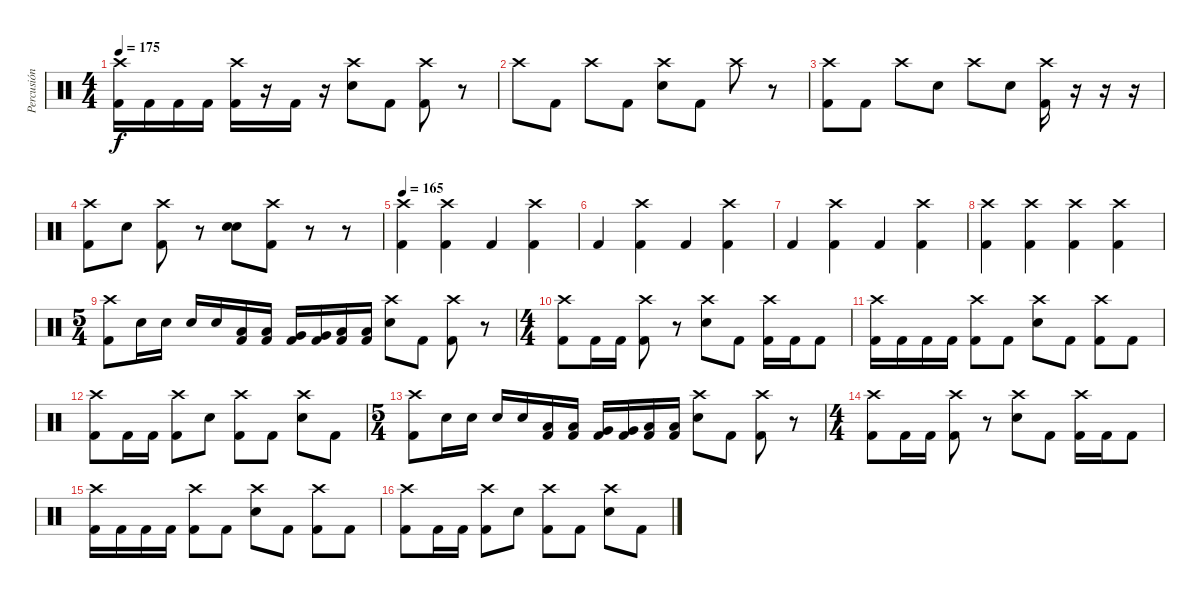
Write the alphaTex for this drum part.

\track ("Percusión" "Percusión") {instrument percussion}
\staff {score}
\articulation defaults
\ts (4 4)
\tempo 175
\clef neutral
\ks c
("Crash high (hit)" "Kick (hit) 2").16{dy f} "Kick (hit) 2".16 "Kick (hit) 2".16 "Kick (hit) 2".16 ("Crash high (hit)" "Kick (hit) 2").16 r.16 "Kick (hit) 2".16 r.16 ("Crash high (hit)" "Electric Snare (hit)").8 "Kick (hit) 2".8 ("Crash high (hit)" "Kick (hit) 2").8 r.8 |
"Crash high (hit)".8 "Kick (hit) 2".8 "Crash high (hit)".8 "Kick (hit) 2".8 ("Crash high (hit)" "Electric Snare (hit)").8 "Kick (hit) 2".8 "Crash high (hit)".8 r.8 |
("Crash high (hit)" "Kick (hit) 2").8 "Kick (hit) 2".8 "Crash high (hit)".8 "Electric Snare (hit)".8 "Crash high (hit)".8 "Electric Snare (hit)".8 ("Crash high (hit)" "Kick (hit) 2").16 r.16 r.16 r.16 |
("Crash high (hit)" "Kick (hit) 2").8 "Electric Snare (hit)".8 ("Crash high (hit)" "Kick (hit) 2").8 r.8 ("Electric Snare (hit)" "Electric Snare (hit)").8{bu 60} ("Crash high (hit)" "Kick (hit) 2").8 r.8 r.8 |
\tempo 165
("Crash high (hit)" "Kick (hit) 2").4 ("Crash high (hit)" "Kick (hit) 2").4 "Kick (hit) 2".4 ("Crash high (hit)" "Kick (hit) 2").4 |
"Kick (hit) 2".4 ("Crash high (hit)" "Kick (hit) 2").4 "Kick (hit) 2".4 ("Crash high (hit)" "Kick (hit) 2").4 |
"Kick (hit) 2".4 ("Crash high (hit)" "Kick (hit) 2").4 "Kick (hit) 2".4 ("Crash high (hit)" "Kick (hit) 2").4 |
("Crash high (hit)" "Kick (hit) 2").4 ("Crash high (hit)" "Kick (hit) 2").4 ("Crash high (hit)" "Kick (hit) 2").4 ("Crash high (hit)" "Kick (hit) 2").4 |
\ts (5 4)
("Crash high (hit)" "Kick (hit) 2").8 "Electric Snare (hit)".16 "Electric Snare (hit)".16 "Electric Snare (hit)".16 "Electric Snare (hit)".16 ("Low Tom (hit)" "Kick (hit) 2").16 ("Low Tom (hit)" "Kick (hit) 2").16 ("Very Low Tom (hit)" "Kick (hit) 2").16 ("Very Low Tom (hit)" "Kick (hit) 2").16 ("Low Tom (hit)" "Kick (hit) 2").16 ("Low Tom (hit)" "Kick (hit) 2").16 ("Crash high (hit)" "Electric Snare (hit)").8 "Kick (hit) 2".8 ("Crash high (hit)" "Kick (hit) 2").8 r.8 |
\ts (4 4)
("Crash high (hit)" "Kick (hit) 2").8 "Kick (hit) 2".16 "Kick (hit) 2".16 ("Crash high (hit)" "Kick (hit) 2").8 r.8 ("Crash high (hit)" "Electric Snare (hit)").8 "Kick (hit) 2".8 ("Crash high (hit)" "Kick (hit) 2").16 "Kick (hit) 2".16 "Kick (hit) 2".8 |
("Crash high (hit)" "Kick (hit) 2").16 "Kick (hit) 2".16 "Kick (hit) 2".16 "Kick (hit) 2".16 ("Crash high (hit)" "Kick (hit) 2").8 "Kick (hit) 2".8 ("Crash high (hit)" "Electric Snare (hit)").8 "Kick (hit) 2".8 ("Crash high (hit)" "Kick (hit) 2").8 "Kick (hit) 2".8 |
("Crash high (hit)" "Kick (hit) 2").8 "Kick (hit) 2".16 "Kick (hit) 2".16 ("Crash high (hit)" "Kick (hit) 2").8 "Electric Snare (hit)".8 ("Crash high (hit)" "Kick (hit) 2").8 "Kick (hit) 2".8 ("Crash high (hit)" "Electric Snare (hit)").8 "Kick (hit) 2".8 |
\ts (5 4)
("Crash high (hit)" "Kick (hit) 2").8 "Electric Snare (hit)".16 "Electric Snare (hit)".16 "Electric Snare (hit)".16 "Electric Snare (hit)".16 ("Low Tom (hit)" "Kick (hit) 2").16 ("Low Tom (hit)" "Kick (hit) 2").16 ("Very Low Tom (hit)" "Kick (hit) 2").16 ("Very Low Tom (hit)" "Kick (hit) 2").16 ("Low Tom (hit)" "Kick (hit) 2").16 ("Low Tom (hit)" "Kick (hit) 2").16 ("Crash high (hit)" "Electric Snare (hit)").8 "Kick (hit) 2".8 ("Crash high (hit)" "Kick (hit) 2").8 r.8 |
\ts (4 4)
("Crash high (hit)" "Kick (hit) 2").8 "Kick (hit) 2".16 "Kick (hit) 2".16 ("Crash high (hit)" "Kick (hit) 2").8 r.8 ("Crash high (hit)" "Electric Snare (hit)").8 "Kick (hit) 2".8 ("Crash high (hit)" "Kick (hit) 2").16 "Kick (hit) 2".16 "Kick (hit) 2".8 |
("Crash high (hit)" "Kick (hit) 2").16 "Kick (hit) 2".16 "Kick (hit) 2".16 "Kick (hit) 2".16 ("Crash high (hit)" "Kick (hit) 2").8 "Kick (hit) 2".8 ("Crash high (hit)" "Electric Snare (hit)").8 "Kick (hit) 2".8 ("Crash high (hit)" "Kick (hit) 2").8 "Kick (hit) 2".8 |
("Crash high (hit)" "Kick (hit) 2").8 "Kick (hit) 2".16 "Kick (hit) 2".16 ("Crash high (hit)" "Kick (hit) 2").8 "Electric Snare (hit)".8 ("Crash high (hit)" "Kick (hit) 2").8 "Kick (hit) 2".8 ("Crash high (hit)" "Electric Snare (hit)").8 "Kick (hit) 2".8
